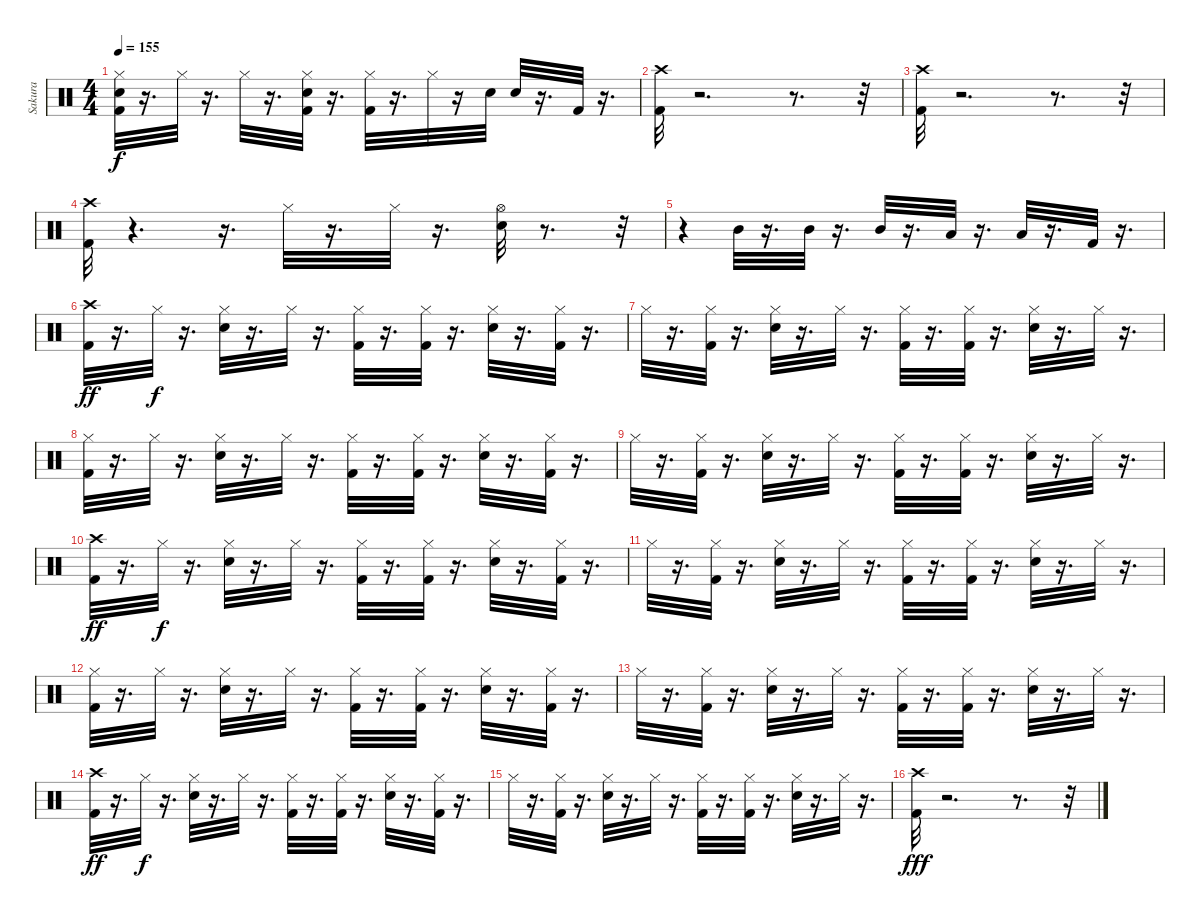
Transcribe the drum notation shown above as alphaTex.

\track ("Sakura" "Sakura") {instrument percussion}
\staff {score}
\articulation defaults
\ts (4 4)
\tempo 155
\clef neutral
\ks c
("Hi-Hat (closed)" "Snare (hit) 2" "Kick (hit) 2").32{dy f} r.16{d} "Hi-Hat (closed)".32 r.16{d} "Hi-Hat (closed)".32 r.16{d} ("Hi-Hat (closed)" "Kick (hit) 2" "Snare (hit) 2").32 r.16{d} ("Hi-Hat (closed)" "Kick (hit) 2").32 r.16{d} "Hi-Hat (closed)".32 r.16 "Snare (hit) 2".32 "Snare (hit) 2".32 r.16{d} "Kick (hit) 2".32 r.16{d} |
("Crash high (hit)" "Kick (hit) 2").32 r.2{d} r.8{d} r.32 |
("Kick (hit) 2" "Crash high (hit)").32 r.2{d} r.8{d} r.32 |
("Crash high (hit)" "Kick (hit) 2").32 r.4{d} r.16{d} "Hi-Hat (closed)".32 r.16{d} "Hi-Hat (closed)".32 r.16{d} ("Snare (hit) 2" "Hi-Hat (open)").32 r.8{d} r.32 |
r.4 "Mid Tom (hit)".32 r.16{d} "Mid Tom (hit)".32 r.16{d} "Mid Tom (hit)".32 r.16{d} "Low Tom (hit)".32 r.16{d} "Low Tom (hit)".32 r.16{d} "Kick (hit) 2".32 r.16{d} |
("Crash high (hit)" "Kick (hit) 2").32{dy ff} r.16{d} "Hi-Hat (closed)".32{dy f} r.16{d} ("Hi-Hat (closed)" "Snare (hit) 2").32 r.16{d} "Hi-Hat (closed)".32 r.16{d} ("Hi-Hat (closed)" "Kick (hit) 2").32 r.16{d} ("Hi-Hat (closed)" "Kick (hit) 2").32 r.16{d} ("Hi-Hat (closed)" "Snare (hit) 2").32 r.16{d} ("Hi-Hat (closed)" "Kick (hit) 2").32 r.16{d} |
"Hi-Hat (closed)".32 r.16{d} ("Hi-Hat (closed)" "Kick (hit) 2").32 r.16{d} ("Hi-Hat (closed)" "Snare (hit) 2").32 r.16{d} "Hi-Hat (closed)".32 r.16{d} ("Hi-Hat (closed)" "Kick (hit) 2").32 r.16{d} ("Hi-Hat (closed)" "Kick (hit) 2").32 r.16{d} ("Hi-Hat (closed)" "Snare (hit) 2").32 r.16{d} "Hi-Hat (closed)".32 r.16{d} |
("Hi-Hat (closed)" "Kick (hit) 2").32 r.16{d} "Hi-Hat (closed)".32 r.16{d} ("Hi-Hat (closed)" "Snare (hit) 2").32 r.16{d} "Hi-Hat (closed)".32 r.16{d} ("Hi-Hat (closed)" "Kick (hit) 2").32 r.16{d} ("Hi-Hat (closed)" "Kick (hit) 2").32 r.16{d} ("Hi-Hat (closed)" "Snare (hit) 2").32 r.16{d} ("Hi-Hat (closed)" "Kick (hit) 2").32 r.16{d} |
"Hi-Hat (closed)".32 r.16{d} ("Hi-Hat (closed)" "Kick (hit) 2").32 r.16{d} ("Hi-Hat (closed)" "Snare (hit) 2").32 r.16{d} "Hi-Hat (closed)".32 r.16{d} ("Hi-Hat (closed)" "Kick (hit) 2").32 r.16{d} ("Hi-Hat (closed)" "Kick (hit) 2").32 r.16{d} ("Hi-Hat (closed)" "Snare (hit) 2").32 r.16{d} "Hi-Hat (closed)".32 r.16{d} |
("Crash high (hit)" "Kick (hit) 2").32{dy ff} r.16{d} "Hi-Hat (closed)".32{dy f} r.16{d} ("Hi-Hat (closed)" "Snare (hit) 2").32 r.16{d} "Hi-Hat (closed)".32 r.16{d} ("Hi-Hat (closed)" "Kick (hit) 2").32 r.16{d} ("Hi-Hat (closed)" "Kick (hit) 2").32 r.16{d} ("Hi-Hat (closed)" "Snare (hit) 2").32 r.16{d} ("Hi-Hat (closed)" "Kick (hit) 2").32 r.16{d} |
"Hi-Hat (closed)".32 r.16{d} ("Hi-Hat (closed)" "Kick (hit) 2").32 r.16{d} ("Hi-Hat (closed)" "Snare (hit) 2").32 r.16{d} "Hi-Hat (closed)".32 r.16{d} ("Hi-Hat (closed)" "Kick (hit) 2").32 r.16{d} ("Hi-Hat (closed)" "Kick (hit) 2").32 r.16{d} ("Hi-Hat (closed)" "Snare (hit) 2").32 r.16{d} "Hi-Hat (closed)".32 r.16{d} |
("Hi-Hat (closed)" "Kick (hit) 2").32 r.16{d} "Hi-Hat (closed)".32 r.16{d} ("Hi-Hat (closed)" "Snare (hit) 2").32 r.16{d} "Hi-Hat (closed)".32 r.16{d} ("Hi-Hat (closed)" "Kick (hit) 2").32 r.16{d} ("Hi-Hat (closed)" "Kick (hit) 2").32 r.16{d} ("Hi-Hat (closed)" "Snare (hit) 2").32 r.16{d} ("Hi-Hat (closed)" "Kick (hit) 2").32 r.16{d} |
"Hi-Hat (closed)".32 r.16{d} ("Hi-Hat (closed)" "Kick (hit) 2").32 r.16{d} ("Hi-Hat (closed)" "Snare (hit) 2").32 r.16{d} "Hi-Hat (closed)".32 r.16{d} ("Hi-Hat (closed)" "Kick (hit) 2").32 r.16{d} ("Hi-Hat (closed)" "Kick (hit) 2").32 r.16{d} ("Hi-Hat (closed)" "Snare (hit) 2").32 r.16{d} "Hi-Hat (closed)".32 r.16{d} |
("Crash high (hit)" "Kick (hit) 2").32{dy ff} r.16{d} "Hi-Hat (closed)".32{dy f} r.16{d} ("Hi-Hat (closed)" "Snare (hit) 2").32 r.16{d} "Hi-Hat (closed)".32 r.16{d} ("Hi-Hat (closed)" "Kick (hit) 2").32 r.16{d} ("Hi-Hat (closed)" "Kick (hit) 2").32 r.16{d} ("Hi-Hat (closed)" "Snare (hit) 2").32 r.16{d} ("Hi-Hat (closed)" "Kick (hit) 2").32 r.16{d} |
"Hi-Hat (closed)".32 r.16{d} ("Hi-Hat (closed)" "Kick (hit) 2").32 r.16{d} ("Hi-Hat (closed)" "Snare (hit) 2").32 r.16{d} "Hi-Hat (closed)".32 r.16{d} ("Hi-Hat (closed)" "Kick (hit) 2").32 r.16{d} ("Hi-Hat (closed)" "Kick (hit) 2").32 r.16{d} ("Hi-Hat (closed)" "Snare (hit) 2").32 r.16{d} "Hi-Hat (closed)".32 r.16{d} |
("Crash high (hit)" "Kick (hit) 2").32{dy fff} r.2{d} r.8{d} r.32
